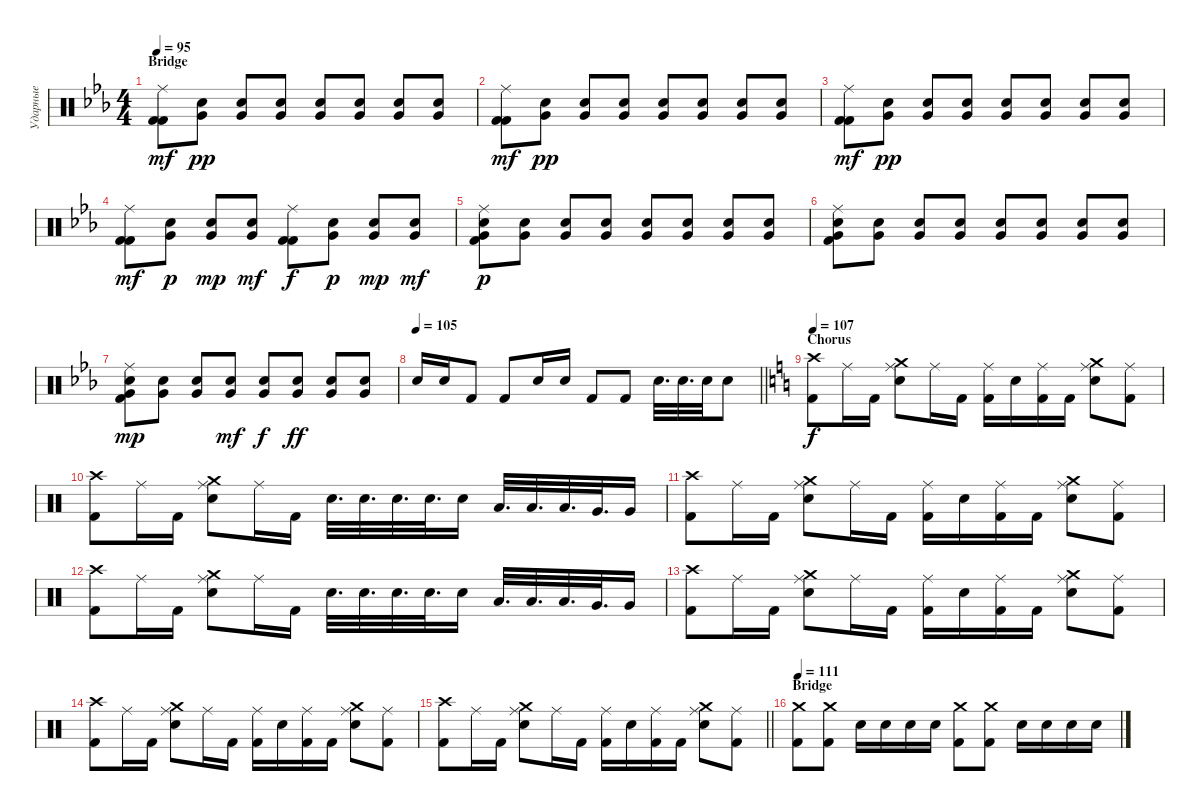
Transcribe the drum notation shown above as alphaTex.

\track ("Ударные" "Ударные") {instrument percussion}
\staff {score}
\articulation defaults
\ts (4 4)
\section ("" "Bridge")
\tempo 95
\clef neutral
\ks eb
("Ride (middle)" "Kick (hit) 2" "Kick (hit) 2").8{dy mf} ("Snare (hit) 2" "Very Low Tom (hit)").8{dy pp} ("Snare (hit) 2" "Very Low Tom (hit)").8 ("Snare (hit) 2" "Very Low Tom (hit)").8 ("Snare (hit) 2" "Very Low Tom (hit)").8 ("Snare (hit) 2" "Very Low Tom (hit)").8 ("Snare (hit) 2" "Very Low Tom (hit)").8 ("Snare (hit) 2" "Very Low Tom (hit)").8 |
("Ride (middle)" "Kick (hit) 2" "Kick (hit) 2").8{dy mf} ("Snare (hit) 2" "Very Low Tom (hit)").8{dy pp} ("Snare (hit) 2" "Very Low Tom (hit)").8 ("Snare (hit) 2" "Very Low Tom (hit)").8 ("Snare (hit) 2" "Very Low Tom (hit)").8 ("Snare (hit) 2" "Very Low Tom (hit)").8 ("Snare (hit) 2" "Very Low Tom (hit)").8 ("Snare (hit) 2" "Very Low Tom (hit)").8 |
("Ride (middle)" "Kick (hit) 2" "Kick (hit) 2").8{dy mf} ("Snare (hit) 2" "Very Low Tom (hit)").8{dy pp} ("Snare (hit) 2" "Very Low Tom (hit)").8 ("Snare (hit) 2" "Very Low Tom (hit)").8 ("Snare (hit) 2" "Very Low Tom (hit)").8 ("Snare (hit) 2" "Very Low Tom (hit)").8 ("Snare (hit) 2" "Very Low Tom (hit)").8 ("Snare (hit) 2" "Very Low Tom (hit)").8 |
("Ride (middle)" "Kick (hit) 2" "Kick (hit) 2").8{dy mf} ("Very Low Tom (hit)" "Snare (hit) 2").8{dy p} ("Very Low Tom (hit)" "Snare (hit) 2").8{dy mp} ("Very Low Tom (hit)" "Snare (hit) 2").8{dy mf} ("Ride (middle)" "Kick (hit) 2" "Kick (hit) 2").8{dy f} ("Very Low Tom (hit)" "Snare (hit) 2").8{dy p} ("Very Low Tom (hit)" "Snare (hit) 2").8{dy mp} ("Very Low Tom (hit)" "Snare (hit) 2").8{dy mf} |
("Ride (middle)" "Very Low Tom (hit)" "Snare (hit) 2" "Kick (hit) 2").8{dy p} ("Very Low Tom (hit)" "Snare (hit) 2").8 ("Very Low Tom (hit)" "Snare (hit) 2").8 ("Very Low Tom (hit)" "Snare (hit) 2").8 ("Very Low Tom (hit)" "Snare (hit) 2").8 ("Very Low Tom (hit)" "Snare (hit) 2").8 ("Very Low Tom (hit)" "Snare (hit) 2").8 ("Very Low Tom (hit)" "Snare (hit) 2").8 |
("Ride (middle)" "Very Low Tom (hit)" "Snare (hit) 2" "Kick (hit) 2").8 ("Very Low Tom (hit)" "Snare (hit) 2").8 ("Very Low Tom (hit)" "Snare (hit) 2").8 ("Very Low Tom (hit)" "Snare (hit) 2").8 ("Very Low Tom (hit)" "Snare (hit) 2").8 ("Very Low Tom (hit)" "Snare (hit) 2").8 ("Very Low Tom (hit)" "Snare (hit) 2").8 ("Very Low Tom (hit)" "Snare (hit) 2").8 |
("Ride (middle)" "Very Low Tom (hit)" "Snare (hit) 2" "Kick (hit) 2").8{dy mp} ("Very Low Tom (hit)" "Snare (hit) 2").8 ("Very Low Tom (hit)" "Snare (hit) 2").8 ("Very Low Tom (hit)" "Snare (hit) 2").8{dy mf} ("Very Low Tom (hit)" "Snare (hit) 2").8{dy f} ("Very Low Tom (hit)" "Snare (hit) 2").8{dy ff} ("Very Low Tom (hit)" "Snare (hit) 2").8 ("Very Low Tom (hit)" "Snare (hit) 2").8 |
\tempo 105
\barLineRight lightlight "Electric Snare (hit)".16 "Electric Snare (hit)".16 "Kick (hit) 2".8 "Kick (hit) 2".8 "Electric Snare (hit)".16 "Electric Snare (hit)".16 "Kick (hit) 2".8 "Kick (hit) 2".8 "Electric Snare (hit)".32{d} "Electric Snare (hit)".32{d} "Electric Snare (hit)".32 "Electric Snare (hit)".8
|
\section ("" "Chorus")
\tempo 107
\ks c
("Crash high (hit)" "Kick (hit) 2").8{dy f} "Ride (middle)".16 "Kick (hit) 2".16 ("Ride (middle)" "Crash medium (hit)" "Electric Snare (hit)").8 "Ride (middle)".16 "Kick (hit) 2".16 ("Ride (middle)" "Kick (hit) 2").16 "Electric Snare (hit)".16 ("Ride (middle)" "Kick (hit) 2").16 "Kick (hit) 2".16 ("Ride (middle)" "Crash medium (hit)" "Electric Snare (hit)").8 ("Ride (middle)" "Kick (hit) 2").8 |
("Crash high (hit)" "Kick (hit) 2").8 "Ride (middle)".16 "Kick (hit) 2".16 ("Ride (middle)" "Crash medium (hit)" "Electric Snare (hit)").8 "Ride (middle)".16 "Kick (hit) 2".16 "Electric Snare (hit)".32{d} "Electric Snare (hit)".32{d} "Electric Snare (hit)".32{d} "Electric Snare (hit)".32{d} "Electric Snare (hit)".16 "Low Tom (hit)".32{d} "Low Tom (hit)".32{d} "Low Tom (hit)".32{d} "Very Low Tom (hit)".32{d} "Very Low Tom (hit)".16 |
("Crash high (hit)" "Kick (hit) 2").8 "Ride (middle)".16 "Kick (hit) 2".16 ("Ride (middle)" "Crash medium (hit)" "Electric Snare (hit)").8 "Ride (middle)".16 "Kick (hit) 2".16 ("Ride (middle)" "Kick (hit) 2").16 "Electric Snare (hit)".16 ("Ride (middle)" "Kick (hit) 2").16 "Kick (hit) 2".16 ("Ride (middle)" "Crash medium (hit)" "Electric Snare (hit)").8 ("Ride (middle)" "Kick (hit) 2").8 |
("Crash high (hit)" "Kick (hit) 2").8 "Ride (middle)".16 "Kick (hit) 2".16 ("Ride (middle)" "Crash medium (hit)" "Electric Snare (hit)").8 "Ride (middle)".16 "Kick (hit) 2".16 "Electric Snare (hit)".32{d} "Electric Snare (hit)".32{d} "Electric Snare (hit)".32{d} "Electric Snare (hit)".32{d} "Electric Snare (hit)".16 "Low Tom (hit)".32{d} "Low Tom (hit)".32{d} "Low Tom (hit)".32{d} "Very Low Tom (hit)".32{d} "Very Low Tom (hit)".16 |
("Crash high (hit)" "Kick (hit) 2").8 "Ride (middle)".16 "Kick (hit) 2".16 ("Ride (middle)" "Crash medium (hit)" "Electric Snare (hit)").8 "Ride (middle)".16 "Kick (hit) 2".16 ("Ride (middle)" "Kick (hit) 2").16 "Electric Snare (hit)".16 ("Ride (middle)" "Kick (hit) 2").16 "Kick (hit) 2".16 ("Ride (middle)" "Crash medium (hit)" "Electric Snare (hit)").8 ("Ride (middle)" "Kick (hit) 2").8 |
("Crash high (hit)" "Kick (hit) 2").8 "Ride (middle)".16 "Kick (hit) 2".16 ("Ride (middle)" "Crash medium (hit)" "Electric Snare (hit)").8 "Ride (middle)".16 "Kick (hit) 2".16 ("Ride (middle)" "Kick (hit) 2").16 "Electric Snare (hit)".16 ("Ride (middle)" "Kick (hit) 2").16 "Kick (hit) 2".16 ("Ride (middle)" "Crash medium (hit)" "Electric Snare (hit)").8 ("Ride (middle)" "Kick (hit) 2").8 |
\barLineRight lightlight
("Crash high (hit)" "Kick (hit) 2").8 "Ride (middle)".16 "Kick (hit) 2".16 ("Ride (middle)" "Crash medium (hit)" "Electric Snare (hit)").8 "Ride (middle)".16 "Kick (hit) 2".16 ("Ride (middle)" "Kick (hit) 2").16 "Electric Snare (hit)".16 ("Ride (middle)" "Kick (hit) 2").16 "Kick (hit) 2".16 ("Ride (middle)" "Crash medium (hit)" "Electric Snare (hit)").8 ("Ride (middle)" "Kick (hit) 2").8 |
\section ("" "Bridge")
\tempo 111
("Crash medium (hit)" "Kick (hit) 2").8 ("Crash medium (hit)" "Kick (hit) 2").8 "Electric Snare (hit)".16 "Electric Snare (hit)".16 "Electric Snare (hit)".16 "Electric Snare (hit)".16 ("Crash medium (hit)" "Kick (hit) 2").8 ("Crash medium (hit)" "Kick (hit) 2").8 "Electric Snare (hit)".16 "Electric Snare (hit)".16 "Electric Snare (hit)".16 "Electric Snare (hit)".16
